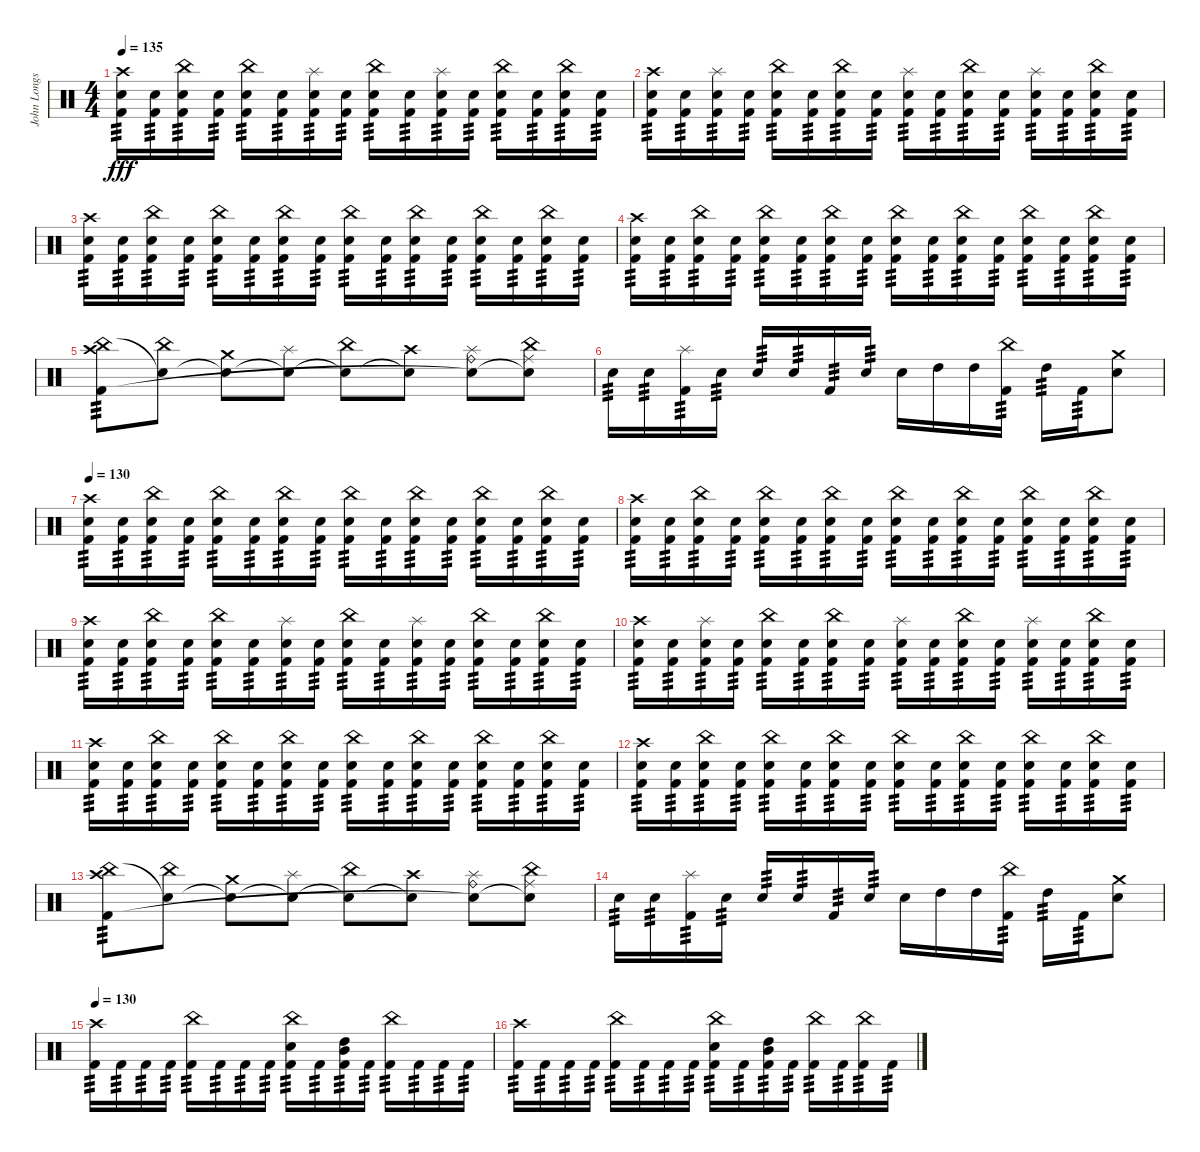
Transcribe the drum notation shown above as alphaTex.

\track ("John Longstreth" "John Longs") {instrument percussion}
\staff {score}
\articulation defaults
\ts (4 4)
\tempo 135
\clef neutral
\ks c
("Crash high (hit)" "Snare (hit) 2" "Kick (hit) 2").16{tp 3 dy fff} ("Snare (hit) 2" "Kick (hit) 2").16{tp 3} ("China (hit)" "Snare (hit) 2" "Kick (hit) 2").16{tp 3} ("Snare (hit) 2" "Kick (hit) 2").16{tp 3} ("China (hit)" "Snare (hit) 2" "Kick (hit) 2").16{tp 3} ("Snare (hit) 2" "Kick (hit) 2").16{tp 3} ("Splash (hit)" "Snare (hit) 2" "Kick (hit) 2").16{tp 3} ("Snare (hit) 2" "Kick (hit) 2").16{tp 3} ("China (hit)" "Snare (hit) 2" "Kick (hit) 2").16{tp 3} ("Snare (hit) 2" "Kick (hit) 2").16{tp 3} ("Splash (hit)" "Snare (hit) 2" "Kick (hit) 2").16{tp 3} ("Snare (hit) 2" "Kick (hit) 2").16{tp 3} ("China (hit)" "Snare (hit) 2" "Kick (hit) 2").16{tp 3} ("Snare (hit) 2" "Kick (hit) 2").16{tp 3} ("China (hit)" "Snare (hit) 2" "Kick (hit) 2").16{tp 3} ("Snare (hit) 2" "Kick (hit) 2").16{tp 3} |
("Crash high (hit)" "Snare (hit) 2" "Kick (hit) 2").16{tp 3} ("Snare (hit) 2" "Kick (hit) 2").16{tp 3} ("Splash (hit)" "Snare (hit) 2" "Kick (hit) 2").16{tp 3} ("Snare (hit) 2" "Kick (hit) 2").16{tp 3} ("China (hit)" "Snare (hit) 2" "Kick (hit) 2").16{tp 3} ("Snare (hit) 2" "Kick (hit) 2").16{tp 3} ("China (hit)" "Snare (hit) 2" "Kick (hit) 2").16{tp 3} ("Snare (hit) 2" "Kick (hit) 2").16{tp 3} ("Splash (hit)" "Snare (hit) 2" "Kick (hit) 2").16{tp 3} ("Snare (hit) 2" "Kick (hit) 2").16{tp 3} ("China (hit)" "Snare (hit) 2" "Kick (hit) 2").16{tp 3} ("Snare (hit) 2" "Kick (hit) 2").16{tp 3} ("Splash (hit)" "Snare (hit) 2" "Kick (hit) 2").16{tp 3} ("Snare (hit) 2" "Kick (hit) 2").16{tp 3} ("China (hit)" "Snare (hit) 2" "Kick (hit) 2").16{tp 3} ("Snare (hit) 2" "Kick (hit) 2").16{tp 3} |
("Crash high (hit)" "Snare (hit) 2" "Kick (hit) 2").16{tp 3} ("Snare (hit) 2" "Kick (hit) 2").16{tp 3} ("China (hit)" "Snare (hit) 2" "Kick (hit) 2").16{tp 3} ("Snare (hit) 2" "Kick (hit) 2").16{tp 3} ("China (hit)" "Snare (hit) 2" "Kick (hit) 2").16{tp 3} ("Snare (hit) 2" "Kick (hit) 2").16{tp 3} ("China (hit)" "Snare (hit) 2" "Kick (hit) 2").16{tp 3} ("Snare (hit) 2" "Kick (hit) 2").16{tp 3} ("China (hit)" "Snare (hit) 2" "Kick (hit) 2").16{tp 3} ("Snare (hit) 2" "Kick (hit) 2").16{tp 3} ("China (hit)" "Snare (hit) 2" "Kick (hit) 2").16{tp 3} ("Snare (hit) 2" "Kick (hit) 2").16{tp 3} ("China (hit)" "Snare (hit) 2" "Kick (hit) 2").16{tp 3} ("Snare (hit) 2" "Kick (hit) 2").16{tp 3} ("China (hit)" "Snare (hit) 2" "Kick (hit) 2").16{tp 3} ("Snare (hit) 2" "Kick (hit) 2").16{tp 3} |
("Crash high (hit)" "Snare (hit) 2" "Kick (hit) 2").16{tp 3} ("Snare (hit) 2" "Kick (hit) 2").16{tp 3} ("China (hit)" "Snare (hit) 2" "Kick (hit) 2").16{tp 3} ("Snare (hit) 2" "Kick (hit) 2").16{tp 3} ("China (hit)" "Snare (hit) 2" "Kick (hit) 2").16{tp 3} ("Snare (hit) 2" "Kick (hit) 2").16{tp 3} ("China (hit)" "Snare (hit) 2" "Kick (hit) 2").16{tp 3} ("Snare (hit) 2" "Kick (hit) 2").16{tp 3} ("China (hit)" "Snare (hit) 2" "Kick (hit) 2").16{tp 3} ("Snare (hit) 2" "Kick (hit) 2").16{tp 3} ("China (hit)" "Snare (hit) 2" "Kick (hit) 2").16{tp 3} ("Snare (hit) 2" "Kick (hit) 2").16{tp 3} ("China (hit)" "Snare (hit) 2" "Kick (hit) 2").16{tp 3} ("Snare (hit) 2" "Kick (hit) 2").16{tp 3} ("China (hit)" "Snare (hit) 2" "Kick (hit) 2").16{tp 3} ("Snare (hit) 2" "Kick (hit) 2").16{tp 3} |
("Crash high (hit)" "China (hit)" "Kick (hit) 2").8{tp 3} ("China (hit)" "Snare (hit)"{t}).8 ("Crash medium (hit)" "Snare (hit)"{t}).8 ("Splash (hit)" "Snare (hit)"{t}).8 ("China (hit)" "Snare (hit)"{t}).8 ("Crash high (hit)" "Snare (hit)"{t}).8 ("Ride (bell)" "Splash (hit)" "Snare (hit)"{t}).8 ("Ride (middle)" "China (hit)" "Snare (hit)"{t}).8 |
"Snare (hit) 2".16{tp 3} "Snare (hit) 2".16{tp 3} ("Splash (hit)" "Kick (hit) 2").16{tp 3} "Snare (hit) 2".16{tp 3} "Snare (hit) 2".16{tp 3} "Snare (hit) 2".16{tp 3} "Kick (hit) 2".16{tp 3} "Snare (hit) 2".16{tp 3} "Snare (hit) 2".16 "High Tom (hit)".16 "High Tom (hit)".16 ("China (hit)" "Kick (hit) 2").16{tp 3} "High Tom (hit)".16{tp 3} "Kick (hit) 2".16{tp 3} ("Crash medium (hit)" "Snare (hit) 2").8 |
\tempo 130
("Crash high (hit)" "Snare (hit) 2" "Kick (hit) 2").16{tp 3} ("Snare (hit) 2" "Kick (hit) 2").16{tp 3} ("China (hit)" "Snare (hit) 2" "Kick (hit) 2").16{tp 3} ("Snare (hit) 2" "Kick (hit) 2").16{tp 3} ("China (hit)" "Snare (hit) 2" "Kick (hit) 2").16{tp 3} ("Snare (hit) 2" "Kick (hit) 2").16{tp 3} ("China (hit)" "Snare (hit) 2" "Kick (hit) 2").16{tp 3} ("Snare (hit) 2" "Kick (hit) 2").16{tp 3} ("China (hit)" "Snare (hit) 2" "Kick (hit) 2").16{tp 3} ("Snare (hit) 2" "Kick (hit) 2").16{tp 3} ("China (hit)" "Snare (hit) 2" "Kick (hit) 2").16{tp 3} ("Snare (hit) 2" "Kick (hit) 2").16{tp 3} ("China (hit)" "Snare (hit) 2" "Kick (hit) 2").16{tp 3} ("Snare (hit) 2" "Kick (hit) 2").16{tp 3} ("China (hit)" "Snare (hit) 2" "Kick (hit) 2").16{tp 3} ("Snare (hit) 2" "Kick (hit) 2").16{tp 3} |
("Crash high (hit)" "Snare (hit) 2" "Kick (hit) 2").16{tp 3} ("Snare (hit) 2" "Kick (hit) 2").16{tp 3} ("China (hit)" "Snare (hit) 2" "Kick (hit) 2").16{tp 3} ("Snare (hit) 2" "Kick (hit) 2").16{tp 3} ("China (hit)" "Snare (hit) 2" "Kick (hit) 2").16{tp 3} ("Snare (hit) 2" "Kick (hit) 2").16{tp 3} ("China (hit)" "Snare (hit) 2" "Kick (hit) 2").16{tp 3} ("Snare (hit) 2" "Kick (hit) 2").16{tp 3} ("China (hit)" "Snare (hit) 2" "Kick (hit) 2").16{tp 3} ("Snare (hit) 2" "Kick (hit) 2").16{tp 3} ("China (hit)" "Snare (hit) 2" "Kick (hit) 2").16{tp 3} ("Snare (hit) 2" "Kick (hit) 2").16{tp 3} ("China (hit)" "Snare (hit) 2" "Kick (hit) 2").16{tp 3} ("Snare (hit) 2" "Kick (hit) 2").16{tp 3} ("China (hit)" "Snare (hit) 2" "Kick (hit) 2").16{tp 3} ("Snare (hit) 2" "Kick (hit) 2").16{tp 3} |
("Crash high (hit)" "Snare (hit) 2" "Kick (hit) 2").16{tp 3} ("Snare (hit) 2" "Kick (hit) 2").16{tp 3} ("China (hit)" "Snare (hit) 2" "Kick (hit) 2").16{tp 3} ("Snare (hit) 2" "Kick (hit) 2").16{tp 3} ("China (hit)" "Snare (hit) 2" "Kick (hit) 2").16{tp 3} ("Snare (hit) 2" "Kick (hit) 2").16{tp 3} ("Splash (hit)" "Snare (hit) 2" "Kick (hit) 2").16{tp 3} ("Snare (hit) 2" "Kick (hit) 2").16{tp 3} ("China (hit)" "Snare (hit) 2" "Kick (hit) 2").16{tp 3} ("Snare (hit) 2" "Kick (hit) 2").16{tp 3} ("Splash (hit)" "Snare (hit) 2" "Kick (hit) 2").16{tp 3} ("Snare (hit) 2" "Kick (hit) 2").16{tp 3} ("China (hit)" "Snare (hit) 2" "Kick (hit) 2").16{tp 3} ("Snare (hit) 2" "Kick (hit) 2").16{tp 3} ("China (hit)" "Snare (hit) 2" "Kick (hit) 2").16{tp 3} ("Snare (hit) 2" "Kick (hit) 2").16{tp 3} |
("Crash high (hit)" "Snare (hit) 2" "Kick (hit) 2").16{tp 3} ("Snare (hit) 2" "Kick (hit) 2").16{tp 3} ("Splash (hit)" "Snare (hit) 2" "Kick (hit) 2").16{tp 3} ("Snare (hit) 2" "Kick (hit) 2").16{tp 3} ("China (hit)" "Snare (hit) 2" "Kick (hit) 2").16{tp 3} ("Snare (hit) 2" "Kick (hit) 2").16{tp 3} ("China (hit)" "Snare (hit) 2" "Kick (hit) 2").16{tp 3} ("Snare (hit) 2" "Kick (hit) 2").16{tp 3} ("Splash (hit)" "Snare (hit) 2" "Kick (hit) 2").16{tp 3} ("Snare (hit) 2" "Kick (hit) 2").16{tp 3} ("China (hit)" "Snare (hit) 2" "Kick (hit) 2").16{tp 3} ("Snare (hit) 2" "Kick (hit) 2").16{tp 3} ("Splash (hit)" "Snare (hit) 2" "Kick (hit) 2").16{tp 3} ("Snare (hit) 2" "Kick (hit) 2").16{tp 3} ("China (hit)" "Snare (hit) 2" "Kick (hit) 2").16{tp 3} ("Snare (hit) 2" "Kick (hit) 2").16{tp 3} |
("Crash high (hit)" "Snare (hit) 2" "Kick (hit) 2").16{tp 3} ("Snare (hit) 2" "Kick (hit) 2").16{tp 3} ("China (hit)" "Snare (hit) 2" "Kick (hit) 2").16{tp 3} ("Snare (hit) 2" "Kick (hit) 2").16{tp 3} ("China (hit)" "Snare (hit) 2" "Kick (hit) 2").16{tp 3} ("Snare (hit) 2" "Kick (hit) 2").16{tp 3} ("China (hit)" "Snare (hit) 2" "Kick (hit) 2").16{tp 3} ("Snare (hit) 2" "Kick (hit) 2").16{tp 3} ("China (hit)" "Snare (hit) 2" "Kick (hit) 2").16{tp 3} ("Snare (hit) 2" "Kick (hit) 2").16{tp 3} ("China (hit)" "Snare (hit) 2" "Kick (hit) 2").16{tp 3} ("Snare (hit) 2" "Kick (hit) 2").16{tp 3} ("China (hit)" "Snare (hit) 2" "Kick (hit) 2").16{tp 3} ("Snare (hit) 2" "Kick (hit) 2").16{tp 3} ("China (hit)" "Snare (hit) 2" "Kick (hit) 2").16{tp 3} ("Snare (hit) 2" "Kick (hit) 2").16{tp 3} |
("Crash high (hit)" "Snare (hit) 2" "Kick (hit) 2").16{tp 3} ("Snare (hit) 2" "Kick (hit) 2").16{tp 3} ("China (hit)" "Snare (hit) 2" "Kick (hit) 2").16{tp 3} ("Snare (hit) 2" "Kick (hit) 2").16{tp 3} ("China (hit)" "Snare (hit) 2" "Kick (hit) 2").16{tp 3} ("Snare (hit) 2" "Kick (hit) 2").16{tp 3} ("China (hit)" "Snare (hit) 2" "Kick (hit) 2").16{tp 3} ("Snare (hit) 2" "Kick (hit) 2").16{tp 3} ("China (hit)" "Snare (hit) 2" "Kick (hit) 2").16{tp 3} ("Snare (hit) 2" "Kick (hit) 2").16{tp 3} ("China (hit)" "Snare (hit) 2" "Kick (hit) 2").16{tp 3} ("Snare (hit) 2" "Kick (hit) 2").16{tp 3} ("China (hit)" "Snare (hit) 2" "Kick (hit) 2").16{tp 3} ("Snare (hit) 2" "Kick (hit) 2").16{tp 3} ("China (hit)" "Snare (hit) 2" "Kick (hit) 2").16{tp 3} ("Snare (hit) 2" "Kick (hit) 2").16{tp 3} |
("Crash high (hit)" "China (hit)" "Kick (hit) 2").8{tp 3} ("China (hit)" "Snare (hit)"{t}).8 ("Crash medium (hit)" "Snare (hit)"{t}).8 ("Splash (hit)" "Snare (hit)"{t}).8 ("China (hit)" "Snare (hit)"{t}).8 ("Crash high (hit)" "Snare (hit)"{t}).8 ("Ride (bell)" "Splash (hit)" "Snare (hit)"{t}).8 ("Ride (middle)" "China (hit)" "Snare (hit)"{t}).8 |
"Snare (hit) 2".16{tp 3} "Snare (hit) 2".16{tp 3} ("Splash (hit)" "Kick (hit) 2").16{tp 3} "Snare (hit) 2".16{tp 3} "Snare (hit) 2".16{tp 3} "Snare (hit) 2".16{tp 3} "Kick (hit) 2".16{tp 3} "Snare (hit) 2".16{tp 3} "Snare (hit) 2".16 "High Tom (hit)".16 "High Tom (hit)".16 ("China (hit)" "Kick (hit) 2").16{tp 3} "High Tom (hit)".16{tp 3} "Kick (hit) 2".16{tp 3} ("Crash medium (hit)" "Snare (hit) 2").8 |
\tempo 130
("Crash high (hit)" "Kick (hit) 2").16{tp 3} "Kick (hit) 2".16{tp 3} "Kick (hit) 2".16{tp 3} "Kick (hit) 2".16{tp 3} ("China (hit)" "Kick (hit) 2").16{tp 3} "Kick (hit) 2".16{tp 3} "Kick (hit) 2".16{tp 3} "Kick (hit) 2".16{tp 3} ("China (hit)" "Snare (hit) 2" "Kick (hit) 2").16{tp 3} "Kick (hit) 2".16{tp 3} ("Mid Tom (hit)" "High Tom (hit)" "Kick (hit) 2").16{tp 3} "Kick (hit) 2".16{tp 3} ("China (hit)" "Kick (hit) 2").16{tp 3} "Kick (hit) 2".16{tp 3} "Kick (hit) 2".16{tp 3} "Kick (hit) 2".16{tp 3} |
("Crash high (hit)" "Kick (hit) 2").16{tp 3} "Kick (hit) 2".16{tp 3} "Kick (hit) 2".16{tp 3} "Kick (hit) 2".16{tp 3} ("China (hit)" "Kick (hit) 2").16{tp 3} "Kick (hit) 2".16{tp 3} "Kick (hit) 2".16{tp 3} "Kick (hit) 2".16{tp 3} ("China (hit)" "Snare (hit) 2" "Kick (hit) 2").16{tp 3} "Kick (hit) 2".16{tp 3} ("High Tom (hit)" "Mid Tom (hit)" "Kick (hit) 2").16{tp 3} "Kick (hit) 2".16{tp 3} ("China (hit)" "Kick (hit) 2").16{tp 3} "Kick (hit) 2".16{tp 3} ("China (hit)" "Kick (hit) 2").16{tp 3} "Kick (hit) 2".16{tp 3}
